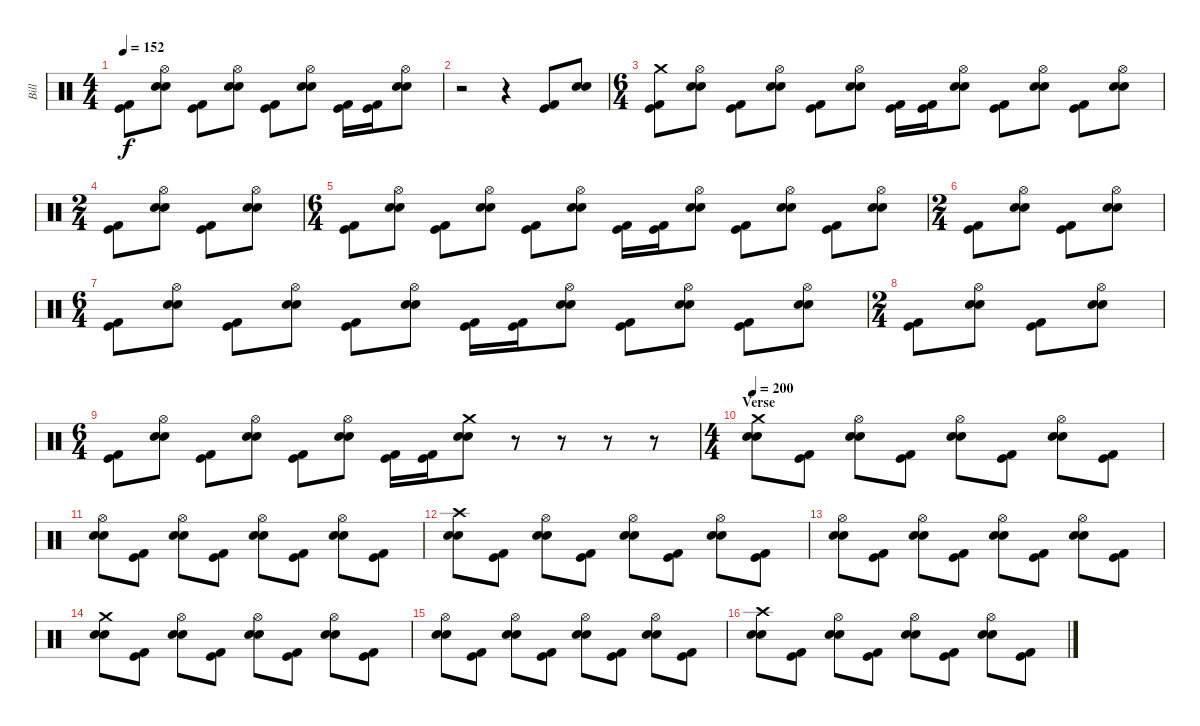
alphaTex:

\track ("Bill" "Bill") {instrument percussion}
\staff {score}
\articulation defaults
\ts (4 4)
\tempo 152
\clef neutral
\ks c
("Kick (hit)" "Kick (hit) 2").8{dy f} ("Hi-Hat (open)" "Snare (hit) 2" "Electric Snare (hit)").8 ("Kick (hit)" "Kick (hit) 2").8 ("Hi-Hat (open)" "Snare (hit) 2" "Electric Snare (hit)").8 ("Kick (hit)" "Kick (hit) 2").8 ("Hi-Hat (open)" "Snare (hit) 2" "Electric Snare (hit)").8 ("Kick (hit)" "Kick (hit) 2").16 ("Kick (hit)" "Kick (hit) 2").16 ("Hi-Hat (open)" "Snare (hit) 2" "Electric Snare (hit)").8 |
r.2 r.4 ("Kick (hit)" "Kick (hit) 2").8 ("Snare (hit) 2" "Electric Snare (hit)").8 |
\ts (6 4)
("Crash medium (hit)" "Kick (hit)" "Kick (hit) 2").8 ("Hi-Hat (open)" "Snare (hit) 2" "Electric Snare (hit)").8 ("Kick (hit)" "Kick (hit) 2").8 ("Hi-Hat (open)" "Snare (hit) 2" "Electric Snare (hit)").8 ("Kick (hit)" "Kick (hit) 2").8 ("Hi-Hat (open)" "Snare (hit) 2" "Electric Snare (hit)").8 ("Kick (hit)" "Kick (hit) 2").16 ("Kick (hit)" "Kick (hit) 2").16 ("Hi-Hat (open)" "Snare (hit) 2" "Electric Snare (hit)").8 ("Kick (hit)" "Kick (hit) 2").8 ("Hi-Hat (open)" "Snare (hit) 2" "Electric Snare (hit)").8 ("Kick (hit)" "Kick (hit) 2").8 ("Hi-Hat (open)" "Snare (hit) 2" "Electric Snare (hit)").8 |
\ts (2 4)
("Kick (hit)" "Kick (hit) 2").8 ("Hi-Hat (open)" "Snare (hit) 2" "Electric Snare (hit)").8 ("Kick (hit)" "Kick (hit) 2").8 ("Hi-Hat (open)" "Snare (hit) 2" "Electric Snare (hit)").8 |
\ts (6 4)
("Kick (hit)" "Kick (hit) 2").8 ("Hi-Hat (open)" "Snare (hit) 2" "Electric Snare (hit)").8 ("Kick (hit)" "Kick (hit) 2").8 ("Hi-Hat (open)" "Snare (hit) 2" "Electric Snare (hit)").8 ("Kick (hit)" "Kick (hit) 2").8 ("Hi-Hat (open)" "Snare (hit) 2" "Electric Snare (hit)").8 ("Kick (hit)" "Kick (hit) 2").16 ("Kick (hit)" "Kick (hit) 2").16 ("Hi-Hat (open)" "Snare (hit) 2" "Electric Snare (hit)").8 ("Kick (hit)" "Kick (hit) 2").8 ("Hi-Hat (open)" "Snare (hit) 2" "Electric Snare (hit)").8 ("Kick (hit)" "Kick (hit) 2").8 ("Hi-Hat (open)" "Snare (hit) 2" "Electric Snare (hit)").8 |
\ts (2 4)
("Kick (hit)" "Kick (hit) 2").8 ("Hi-Hat (open)" "Snare (hit) 2" "Electric Snare (hit)").8 ("Kick (hit)" "Kick (hit) 2").8 ("Hi-Hat (open)" "Snare (hit) 2" "Electric Snare (hit)").8 |
\ts (6 4)
("Kick (hit)" "Kick (hit) 2").8 ("Hi-Hat (open)" "Snare (hit) 2" "Electric Snare (hit)").8 ("Kick (hit)" "Kick (hit) 2").8 ("Hi-Hat (open)" "Snare (hit) 2" "Electric Snare (hit)").8 ("Kick (hit)" "Kick (hit) 2").8 ("Hi-Hat (open)" "Snare (hit) 2" "Electric Snare (hit)").8 ("Kick (hit)" "Kick (hit) 2").16 ("Kick (hit)" "Kick (hit) 2").16 ("Hi-Hat (open)" "Snare (hit) 2" "Electric Snare (hit)").8 ("Kick (hit)" "Kick (hit) 2").8 ("Hi-Hat (open)" "Snare (hit) 2" "Electric Snare (hit)").8 ("Kick (hit)" "Kick (hit) 2").8 ("Hi-Hat (open)" "Snare (hit) 2" "Electric Snare (hit)").8 |
\ts (2 4)
("Kick (hit)" "Kick (hit) 2").8 ("Hi-Hat (open)" "Snare (hit) 2" "Electric Snare (hit)").8 ("Kick (hit)" "Kick (hit) 2").8 ("Hi-Hat (open)" "Snare (hit) 2" "Electric Snare (hit)").8 |
\ts (6 4)
("Kick (hit)" "Kick (hit) 2").8 ("Hi-Hat (open)" "Snare (hit) 2" "Electric Snare (hit)").8 ("Kick (hit)" "Kick (hit) 2").8 ("Hi-Hat (open)" "Snare (hit) 2" "Electric Snare (hit)").8 ("Kick (hit)" "Kick (hit) 2").8 ("Hi-Hat (open)" "Snare (hit) 2" "Electric Snare (hit)").8 ("Kick (hit)" "Kick (hit) 2").16 ("Kick (hit)" "Kick (hit) 2").16 ("Crash medium (hit)" "Snare (hit) 2" "Electric Snare (hit)").8 r.8 r.8 r.8 r.8 |
\ts (4 4)
\section ("" "Verse")
\tempo 200
("Crash medium (hit)" "Snare (hit) 2" "Electric Snare (hit)").8 ("Kick (hit)" "Kick (hit) 2").8 ("Hi-Hat (open)" "Snare (hit) 2" "Electric Snare (hit)").8 ("Kick (hit)" "Kick (hit) 2").8 ("Hi-Hat (open)" "Snare (hit) 2" "Electric Snare (hit)").8 ("Kick (hit)" "Kick (hit) 2").8 ("Hi-Hat (open)" "Snare (hit) 2" "Electric Snare (hit)").8 ("Kick (hit)" "Kick (hit) 2").8 |
("Hi-Hat (open)" "Snare (hit) 2" "Electric Snare (hit)").8 ("Kick (hit)" "Kick (hit) 2").8 ("Hi-Hat (open)" "Snare (hit) 2" "Electric Snare (hit)").8 ("Kick (hit)" "Kick (hit) 2").8 ("Hi-Hat (open)" "Snare (hit) 2" "Electric Snare (hit)").8 ("Kick (hit)" "Kick (hit) 2").8 ("Hi-Hat (open)" "Snare (hit) 2" "Electric Snare (hit)").8 ("Kick (hit)" "Kick (hit) 2").8 |
("Crash high (hit)" "Snare (hit) 2" "Electric Snare (hit)").8 ("Kick (hit)" "Kick (hit) 2").8 ("Hi-Hat (open)" "Snare (hit) 2" "Electric Snare (hit)").8 ("Kick (hit)" "Kick (hit) 2").8 ("Hi-Hat (open)" "Snare (hit) 2" "Electric Snare (hit)").8 ("Kick (hit)" "Kick (hit) 2").8 ("Hi-Hat (open)" "Snare (hit) 2" "Electric Snare (hit)").8 ("Kick (hit)" "Kick (hit) 2").8 |
("Hi-Hat (open)" "Snare (hit) 2" "Electric Snare (hit)").8 ("Kick (hit)" "Kick (hit) 2").8 ("Hi-Hat (open)" "Snare (hit) 2" "Electric Snare (hit)").8 ("Kick (hit)" "Kick (hit) 2").8 ("Hi-Hat (open)" "Snare (hit) 2" "Electric Snare (hit)").8 ("Kick (hit)" "Kick (hit) 2").8 ("Hi-Hat (open)" "Snare (hit) 2" "Electric Snare (hit)").8 ("Kick (hit)" "Kick (hit) 2").8 |
("Crash medium (hit)" "Snare (hit) 2" "Electric Snare (hit)").8 ("Kick (hit)" "Kick (hit) 2").8 ("Hi-Hat (open)" "Snare (hit) 2" "Electric Snare (hit)").8 ("Kick (hit)" "Kick (hit) 2").8 ("Hi-Hat (open)" "Snare (hit) 2" "Electric Snare (hit)").8 ("Kick (hit)" "Kick (hit) 2").8 ("Hi-Hat (open)" "Snare (hit) 2" "Electric Snare (hit)").8 ("Kick (hit)" "Kick (hit) 2").8 |
("Hi-Hat (open)" "Snare (hit) 2" "Electric Snare (hit)").8 ("Kick (hit)" "Kick (hit) 2").8 ("Hi-Hat (open)" "Snare (hit) 2" "Electric Snare (hit)").8 ("Kick (hit)" "Kick (hit) 2").8 ("Hi-Hat (open)" "Snare (hit) 2" "Electric Snare (hit)").8 ("Kick (hit)" "Kick (hit) 2").8 ("Hi-Hat (open)" "Snare (hit) 2" "Electric Snare (hit)").8 ("Kick (hit)" "Kick (hit) 2").8 |
("Crash high (hit)" "Snare (hit) 2" "Electric Snare (hit)").8 ("Kick (hit)" "Kick (hit) 2").8 ("Hi-Hat (open)" "Snare (hit) 2" "Electric Snare (hit)").8 ("Kick (hit)" "Kick (hit) 2").8 ("Hi-Hat (open)" "Snare (hit) 2" "Electric Snare (hit)").8 ("Kick (hit)" "Kick (hit) 2").8 ("Hi-Hat (open)" "Snare (hit) 2" "Electric Snare (hit)").8 ("Kick (hit)" "Kick (hit) 2").8
